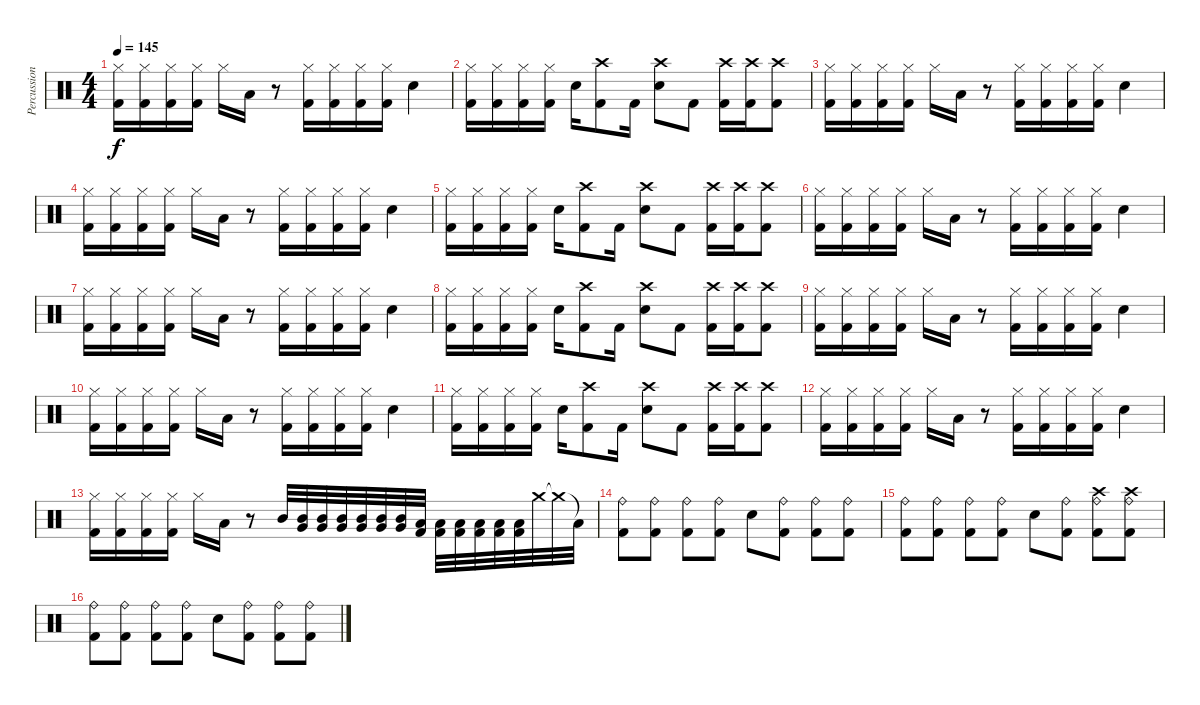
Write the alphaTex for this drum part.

\track ("Percussion" "Percussion") {instrument percussion}
\staff {score}
\articulation defaults
\ts (4 4)
\tempo 145
\clef neutral
\ks c
("Hi-Hat (closed)" "Kick (hit) 2").16{dy f} ("Hi-Hat (closed)" "Kick (hit) 2").16 ("Hi-Hat (closed)" "Kick (hit) 2").16 ("Hi-Hat (closed)" "Kick (hit) 2").16 "Hi-Hat (closed)".16 "Low Floor Tom (hit)".16 r.8 ("Hi-Hat (closed)" "Kick (hit) 2").16 ("Hi-Hat (closed)" "Kick (hit) 2").16 ("Hi-Hat (closed)" "Kick (hit) 2").16 ("Hi-Hat (closed)" "Kick (hit) 2").16 "Snare (hit) 2".4 |
("Hi-Hat (closed)" "Kick (hit) 2").16 ("Hi-Hat (closed)" "Kick (hit) 2").16 ("Hi-Hat (closed)" "Kick (hit) 2").16 ("Hi-Hat (closed)" "Kick (hit) 2").16 "Snare (hit) 2".16 ("Crash high (hit)" "Kick (hit) 2").8 "Kick (hit) 2".16 ("Crash high (hit)" "Snare (hit) 2").8 "Kick (hit) 2".8 ("Crash high (hit)" "Kick (hit) 2").16 ("Crash high (hit)" "Kick (hit) 2").16 ("Crash high (hit)" "Kick (hit) 2").8 |
("Hi-Hat (closed)" "Kick (hit) 2").16 ("Hi-Hat (closed)" "Kick (hit) 2").16 ("Hi-Hat (closed)" "Kick (hit) 2").16 ("Hi-Hat (closed)" "Kick (hit) 2").16 "Hi-Hat (closed)".16 "Low Floor Tom (hit)".16 r.8 ("Hi-Hat (closed)" "Kick (hit) 2").16 ("Hi-Hat (closed)" "Kick (hit) 2").16 ("Hi-Hat (closed)" "Kick (hit) 2").16 ("Hi-Hat (closed)" "Kick (hit) 2").16 "Snare (hit) 2".4 |
("Hi-Hat (closed)" "Kick (hit) 2").16 ("Hi-Hat (closed)" "Kick (hit) 2").16 ("Hi-Hat (closed)" "Kick (hit) 2").16 ("Hi-Hat (closed)" "Kick (hit) 2").16 "Hi-Hat (closed)".16 "Low Floor Tom (hit)".16 r.8 ("Hi-Hat (closed)" "Kick (hit) 2").16 ("Hi-Hat (closed)" "Kick (hit) 2").16 ("Hi-Hat (closed)" "Kick (hit) 2").16 ("Hi-Hat (closed)" "Kick (hit) 2").16 "Snare (hit) 2".4 |
("Hi-Hat (closed)" "Kick (hit) 2").16 ("Hi-Hat (closed)" "Kick (hit) 2").16 ("Hi-Hat (closed)" "Kick (hit) 2").16 ("Hi-Hat (closed)" "Kick (hit) 2").16 "Snare (hit) 2".16 ("Crash high (hit)" "Kick (hit) 2").8 "Kick (hit) 2".16 ("Crash high (hit)" "Snare (hit) 2").8 "Kick (hit) 2".8 ("Crash high (hit)" "Kick (hit) 2").16 ("Crash high (hit)" "Kick (hit) 2").16 ("Crash high (hit)" "Kick (hit) 2").8 |
("Hi-Hat (closed)" "Kick (hit) 2").16 ("Hi-Hat (closed)" "Kick (hit) 2").16 ("Hi-Hat (closed)" "Kick (hit) 2").16 ("Hi-Hat (closed)" "Kick (hit) 2").16 "Hi-Hat (closed)".16 "Low Floor Tom (hit)".16 r.8 ("Hi-Hat (closed)" "Kick (hit) 2").16 ("Hi-Hat (closed)" "Kick (hit) 2").16 ("Hi-Hat (closed)" "Kick (hit) 2").16 ("Hi-Hat (closed)" "Kick (hit) 2").16 "Snare (hit) 2".4 |
("Hi-Hat (closed)" "Kick (hit) 2").16 ("Hi-Hat (closed)" "Kick (hit) 2").16 ("Hi-Hat (closed)" "Kick (hit) 2").16 ("Hi-Hat (closed)" "Kick (hit) 2").16 "Hi-Hat (closed)".16 "Low Floor Tom (hit)".16 r.8 ("Hi-Hat (closed)" "Kick (hit) 2").16 ("Hi-Hat (closed)" "Kick (hit) 2").16 ("Hi-Hat (closed)" "Kick (hit) 2").16 ("Hi-Hat (closed)" "Kick (hit) 2").16 "Snare (hit) 2".4 |
("Hi-Hat (closed)" "Kick (hit) 2").16 ("Hi-Hat (closed)" "Kick (hit) 2").16 ("Hi-Hat (closed)" "Kick (hit) 2").16 ("Hi-Hat (closed)" "Kick (hit) 2").16 "Snare (hit) 2".16 ("Crash high (hit)" "Kick (hit) 2").8 "Kick (hit) 2".16 ("Crash high (hit)" "Snare (hit) 2").8 "Kick (hit) 2".8 ("Crash high (hit)" "Kick (hit) 2").16 ("Crash high (hit)" "Kick (hit) 2").16 ("Crash high (hit)" "Kick (hit) 2").8 |
("Hi-Hat (closed)" "Kick (hit) 2").16 ("Hi-Hat (closed)" "Kick (hit) 2").16 ("Hi-Hat (closed)" "Kick (hit) 2").16 ("Hi-Hat (closed)" "Kick (hit) 2").16 "Hi-Hat (closed)".16 "Low Floor Tom (hit)".16 r.8 ("Hi-Hat (closed)" "Kick (hit) 2").16 ("Hi-Hat (closed)" "Kick (hit) 2").16 ("Hi-Hat (closed)" "Kick (hit) 2").16 ("Hi-Hat (closed)" "Kick (hit) 2").16 "Snare (hit) 2".4 |
("Hi-Hat (closed)" "Kick (hit) 2").16 ("Hi-Hat (closed)" "Kick (hit) 2").16 ("Hi-Hat (closed)" "Kick (hit) 2").16 ("Hi-Hat (closed)" "Kick (hit) 2").16 "Hi-Hat (closed)".16 "Low Floor Tom (hit)".16 r.8 ("Hi-Hat (closed)" "Kick (hit) 2").16 ("Hi-Hat (closed)" "Kick (hit) 2").16 ("Hi-Hat (closed)" "Kick (hit) 2").16 ("Hi-Hat (closed)" "Kick (hit) 2").16 "Snare (hit) 2".4 |
("Hi-Hat (closed)" "Kick (hit) 2").16 ("Hi-Hat (closed)" "Kick (hit) 2").16 ("Hi-Hat (closed)" "Kick (hit) 2").16 ("Hi-Hat (closed)" "Kick (hit) 2").16 "Snare (hit) 2".16 ("Crash high (hit)" "Kick (hit) 2").8 "Kick (hit) 2".16 ("Crash high (hit)" "Snare (hit) 2").8 "Kick (hit) 2".8 ("Crash high (hit)" "Kick (hit) 2").16 ("Crash high (hit)" "Kick (hit) 2").16 ("Crash high (hit)" "Kick (hit) 2").8 |
("Hi-Hat (closed)" "Kick (hit) 2").16 ("Hi-Hat (closed)" "Kick (hit) 2").16 ("Hi-Hat (closed)" "Kick (hit) 2").16 ("Hi-Hat (closed)" "Kick (hit) 2").16 "Hi-Hat (closed)".16 "Low Floor Tom (hit)".16 r.8 ("Hi-Hat (closed)" "Kick (hit) 2").16 ("Hi-Hat (closed)" "Kick (hit) 2").16 ("Hi-Hat (closed)" "Kick (hit) 2").16 ("Hi-Hat (closed)" "Kick (hit) 2").16 "Snare (hit) 2".4 |
("Hi-Hat (closed)" "Kick (hit) 2").16 ("Hi-Hat (closed)" "Kick (hit) 2").16 ("Hi-Hat (closed)" "Kick (hit) 2").16 ("Hi-Hat (closed)" "Kick (hit) 2").16 "Hi-Hat (closed)".16 "Low Floor Tom (hit)".16 r.8 "Mid Tom (hit)".32{balance 0} ("Mid Tom (hit)" "Very Low Tom (hit)").32 ("Very Low Tom (hit)" "Mid Tom (hit)").32 ("Mid Tom (hit)" "Very Low Tom (hit)").32 ("Very Low Tom (hit)" "Mid Tom (hit)").32 ("Mid Tom (hit)" "Very Low Tom (hit)").32 ("Very Low Tom (hit)" "Mid Tom (hit)").32 ("Low Floor Tom (hit)" "Kick (hit) 2").32{balance 16} ("Low Floor Tom (hit)" "Kick (hit) 2").32 ("Low Floor Tom (hit)" "Kick (hit) 2").32 ("Low Floor Tom (hit)" "Kick (hit) 2").32 ("Low Floor Tom (hit)" "Kick (hit) 2").32 ("Low Floor Tom (hit)" "Kick (hit) 2").32 "Crash medium (hit)".32{balance 8} "Crash medium (hit)"{t}.32 "Low Tom (hit)"{t}.32 |
("Ride (bell)" "Kick (hit) 2").8 ("Ride (bell)" "Kick (hit) 2").8 ("Ride (bell)" "Kick (hit) 2").8 ("Ride (bell)" "Kick (hit) 2").8 "Snare (hit) 2".8 ("Ride (bell)" "Kick (hit) 2").8 ("Ride (bell)" "Kick (hit) 2").8 ("Ride (bell)" "Kick (hit) 2").8 |
("Ride (bell)" "Kick (hit) 2").8 ("Ride (bell)" "Kick (hit) 2").8 ("Ride (bell)" "Kick (hit) 2").8 ("Ride (bell)" "Kick (hit) 2").8 "Snare (hit) 2".8 ("Ride (bell)" "Kick (hit) 2").8 ("Crash high (hit)" "Ride (bell)" "Kick (hit) 2").8 ("Crash high (hit)" "Ride (bell)" "Kick (hit) 2").8 |
("Ride (bell)" "Kick (hit) 2").8 ("Ride (bell)" "Kick (hit) 2").8 ("Ride (bell)" "Kick (hit) 2").8 ("Ride (bell)" "Kick (hit) 2").8 "Snare (hit) 2".8 ("Ride (bell)" "Kick (hit) 2").8 ("Ride (bell)" "Kick (hit) 2").8 ("Ride (bell)" "Kick (hit) 2").8
